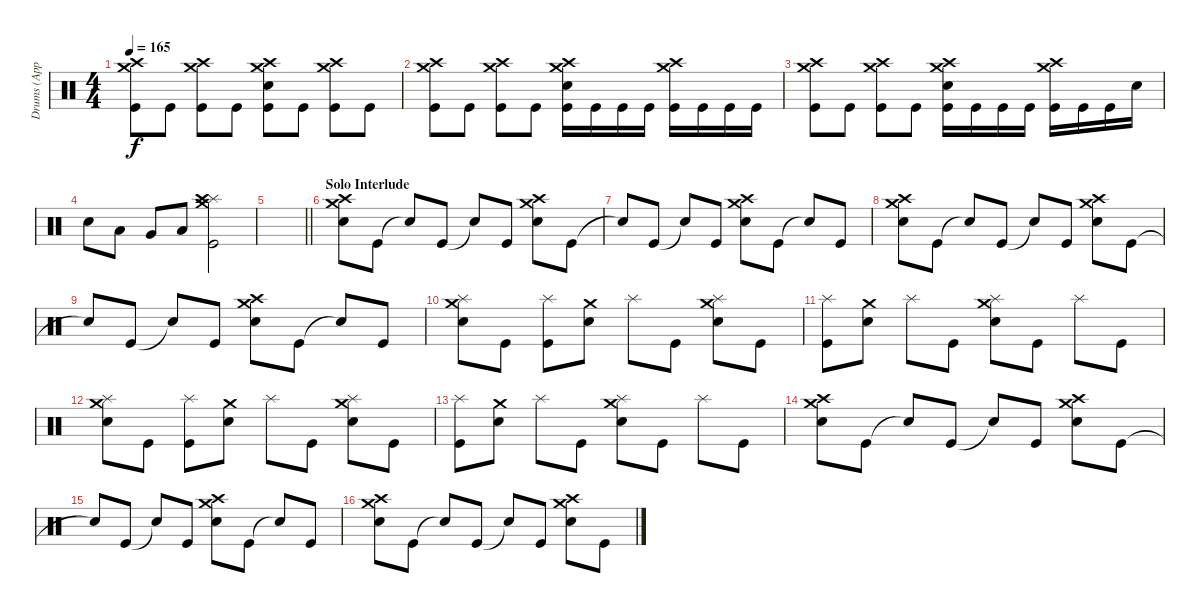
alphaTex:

\track ("Drums (Approx.)" "Drums (App") {instrument percussion}
\staff {score}
\articulation defaults
\ts (4 4)
\tempo 165
\clef neutral
\ks c
("Crash medium (hit)" "Crash high (hit)" "Kick (hit)").8{dy f} "Kick (hit)".8 ("Crash medium (hit)" "Crash high (hit)" "Kick (hit)").8 "Kick (hit)".8 ("Crash medium (hit)" "Crash high (hit)" "Electric Snare (hit)" "Kick (hit)").8 "Kick (hit)".8 ("Crash medium (hit)" "Crash high (hit)" "Kick (hit)").8 "Kick (hit)".8 |
("Crash medium (hit)" "Crash high (hit)" "Kick (hit)").8 "Kick (hit)".8 ("Crash medium (hit)" "Crash high (hit)" "Kick (hit)").8 "Kick (hit)".8 ("Crash medium (hit)" "Crash high (hit)" "Electric Snare (hit)" "Kick (hit)").16 "Kick (hit)".16 "Kick (hit)".16 "Kick (hit)".16 ("Crash medium (hit)" "Crash high (hit)" "Kick (hit)").16 "Kick (hit)".16 "Kick (hit)".16 "Kick (hit)".16 |
("Crash medium (hit)" "Crash high (hit)" "Kick (hit)").8 "Kick (hit)".8 ("Crash medium (hit)" "Crash high (hit)" "Kick (hit)").8 "Kick (hit)".8 ("Crash medium (hit)" "Crash high (hit)" "Electric Snare (hit)" "Kick (hit)").16 "Kick (hit)".16 "Kick (hit)".16 "Kick (hit)".16 ("Crash medium (hit)" "Crash high (hit)" "Kick (hit)").16 "Kick (hit)".16 "Kick (hit)".16 "Electric Snare (hit)".16 |
"Electric Snare (hit)".8 "Low Tom (hit)".8 "Very Low Tom (hit)".8 "Low Floor Tom (hit)".8 ("Crash medium (hit)" "Splash (hit)" "Crash high (hit)" "Kick (hit)").2 |
\barLineRight lightlight
|
\section ("" "Solo Interlude")
("Crash medium (hit)" "Crash high (hit)" "Electric Snare (hit)").8 "Kick (hit)".8 "Snare (hit)"{t}.8 "Kick (hit)".8 "Snare (hit)"{t}.8 "Kick (hit)".8 ("Crash medium (hit)" "Crash high (hit)" "Electric Snare (hit)").8 "Kick (hit)".8 |
"Snare (hit)"{t}.8 "Kick (hit)".8 "Snare (hit)"{t}.8 "Kick (hit)".8 ("Crash medium (hit)" "Crash high (hit)" "Electric Snare (hit)").8 "Kick (hit)".8 "Snare (hit)"{t}.8 "Kick (hit)".8 |
("Crash medium (hit)" "Crash high (hit)" "Electric Snare (hit)").8 "Kick (hit)".8 "Snare (hit)"{t}.8 "Kick (hit)".8 "Snare (hit)"{t}.8 "Kick (hit)".8 ("Crash medium (hit)" "Crash high (hit)" "Electric Snare (hit)").8 "Kick (hit)".8 |
"Snare (hit)"{t}.8 "Kick (hit)".8 "Snare (hit)"{t}.8 "Kick (hit)".8 ("Crash medium (hit)" "Crash high (hit)" "Electric Snare (hit)").8 "Kick (hit)".8 "Snare (hit)"{t}.8 "Kick (hit)".8 |
("Crash medium (hit)" "Splash (hit)" "Electric Snare (hit)").8 "Kick (hit)".8 ("Splash (hit)" "Kick (hit)").8 ("Crash medium (hit)" "Electric Snare (hit)").8 "Splash (hit)".8 "Kick (hit)".8 ("Crash medium (hit)" "Splash (hit)" "Electric Snare (hit)").8 "Kick (hit)".8 |
("Splash (hit)" "Kick (hit)").8 ("Crash medium (hit)" "Electric Snare (hit)").8 "Splash (hit)".8 "Kick (hit)".8 ("Crash medium (hit)" "Splash (hit)" "Electric Snare (hit)").8 "Kick (hit)".8 "Splash (hit)".8 "Kick (hit)".8 |
("Crash medium (hit)" "Splash (hit)" "Electric Snare (hit)").8 "Kick (hit)".8 ("Splash (hit)" "Kick (hit)").8 ("Crash medium (hit)" "Electric Snare (hit)").8 "Splash (hit)".8 "Kick (hit)".8 ("Crash medium (hit)" "Splash (hit)" "Electric Snare (hit)").8 "Kick (hit)".8 |
("Splash (hit)" "Kick (hit)").8 ("Crash medium (hit)" "Electric Snare (hit)").8 "Splash (hit)".8 "Kick (hit)".8 ("Crash medium (hit)" "Splash (hit)" "Electric Snare (hit)").8 "Kick (hit)".8 "Splash (hit)".8 "Kick (hit)".8 |
("Crash medium (hit)" "Crash high (hit)" "Electric Snare (hit)").8 "Kick (hit)".8 "Snare (hit)"{t}.8 "Kick (hit)".8 "Snare (hit)"{t}.8 "Kick (hit)".8 ("Crash medium (hit)" "Crash high (hit)" "Electric Snare (hit)").8 "Kick (hit)".8 |
"Snare (hit)"{t}.8 "Kick (hit)".8 "Snare (hit)"{t}.8 "Kick (hit)".8 ("Crash medium (hit)" "Crash high (hit)" "Electric Snare (hit)").8 "Kick (hit)".8 "Snare (hit)"{t}.8 "Kick (hit)".8 |
("Crash medium (hit)" "Crash high (hit)" "Electric Snare (hit)").8 "Kick (hit)".8 "Snare (hit)"{t}.8 "Kick (hit)".8 "Snare (hit)"{t}.8 "Kick (hit)".8 ("Crash medium (hit)" "Crash high (hit)" "Electric Snare (hit)").8 "Kick (hit)".8
